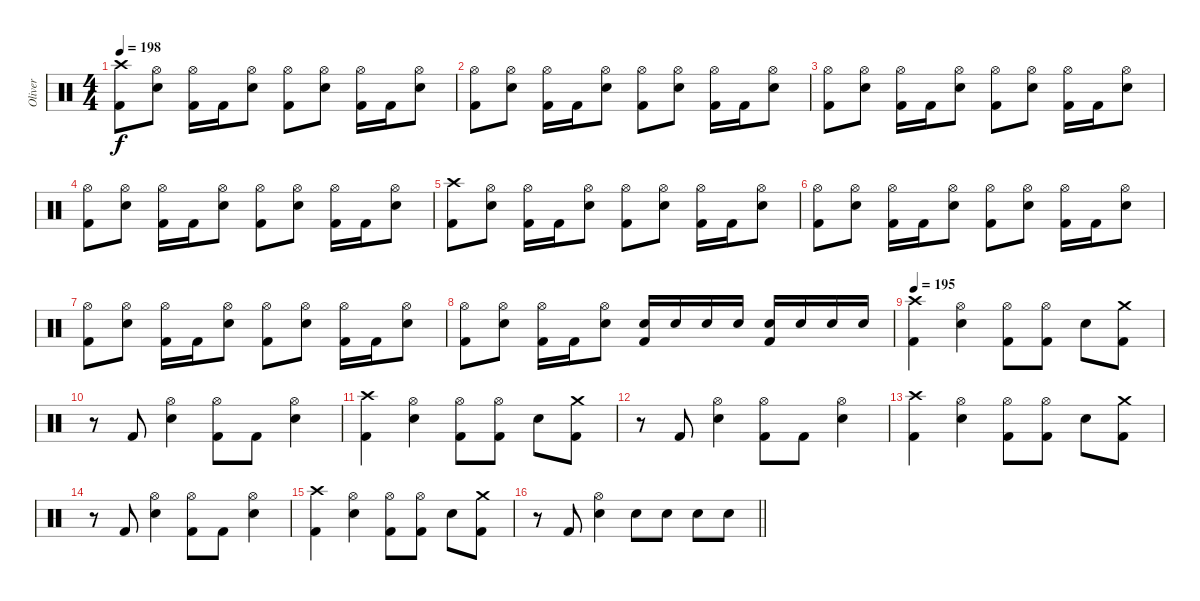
\track ("Oliver" "Oliver") {instrument percussion}
\staff {score}
\articulation defaults
\ts (4 4)
\section ("" "")
\tempo 198
\clef neutral
\ks c
("Crash high (hit)" "Kick (hit) 2").8{dy f} ("Hi-Hat (open)" "Electric Snare (hit)").8 ("Hi-Hat (open)" "Kick (hit) 2").16 "Kick (hit) 2".16 ("Hi-Hat (open)" "Electric Snare (hit)").8 ("Hi-Hat (open)" "Kick (hit) 2").8 ("Hi-Hat (open)" "Electric Snare (hit)").8 ("Hi-Hat (open)" "Kick (hit) 2").16 "Kick (hit) 2".16 ("Hi-Hat (open)" "Electric Snare (hit)").8 |
("Hi-Hat (open)" "Kick (hit) 2").8 ("Hi-Hat (open)" "Electric Snare (hit)").8 ("Hi-Hat (open)" "Kick (hit) 2").16 "Kick (hit) 2".16 ("Hi-Hat (open)" "Electric Snare (hit)").8 ("Hi-Hat (open)" "Kick (hit) 2").8 ("Hi-Hat (open)" "Electric Snare (hit)").8 ("Hi-Hat (open)" "Kick (hit) 2").16 "Kick (hit) 2".16 ("Hi-Hat (open)" "Electric Snare (hit)").8 |
("Hi-Hat (open)" "Kick (hit) 2").8 ("Hi-Hat (open)" "Electric Snare (hit)").8 ("Hi-Hat (open)" "Kick (hit) 2").16 "Kick (hit) 2".16 ("Hi-Hat (open)" "Electric Snare (hit)").8 ("Hi-Hat (open)" "Kick (hit) 2").8 ("Hi-Hat (open)" "Electric Snare (hit)").8 ("Hi-Hat (open)" "Kick (hit) 2").16 "Kick (hit) 2".16 ("Hi-Hat (open)" "Electric Snare (hit)").8 |
("Hi-Hat (open)" "Kick (hit) 2").8 ("Hi-Hat (open)" "Electric Snare (hit)").8 ("Hi-Hat (open)" "Kick (hit) 2").16 "Kick (hit) 2".16 ("Hi-Hat (open)" "Electric Snare (hit)").8 ("Hi-Hat (open)" "Kick (hit) 2").8 ("Hi-Hat (open)" "Electric Snare (hit)").8 ("Hi-Hat (open)" "Kick (hit) 2").16 "Kick (hit) 2".16 ("Hi-Hat (open)" "Electric Snare (hit)").8 |
("Crash high (hit)" "Kick (hit) 2").8 ("Hi-Hat (open)" "Electric Snare (hit)").8 ("Hi-Hat (open)" "Kick (hit) 2").16 "Kick (hit) 2".16 ("Hi-Hat (open)" "Electric Snare (hit)").8 ("Hi-Hat (open)" "Kick (hit) 2").8 ("Hi-Hat (open)" "Electric Snare (hit)").8 ("Hi-Hat (open)" "Kick (hit) 2").16 "Kick (hit) 2".16 ("Hi-Hat (open)" "Electric Snare (hit)").8 |
("Hi-Hat (open)" "Kick (hit) 2").8 ("Hi-Hat (open)" "Electric Snare (hit)").8 ("Hi-Hat (open)" "Kick (hit) 2").16 "Kick (hit) 2".16 ("Hi-Hat (open)" "Electric Snare (hit)").8 ("Hi-Hat (open)" "Kick (hit) 2").8 ("Hi-Hat (open)" "Electric Snare (hit)").8 ("Hi-Hat (open)" "Kick (hit) 2").16 "Kick (hit) 2".16 ("Hi-Hat (open)" "Electric Snare (hit)").8 |
("Hi-Hat (open)" "Kick (hit) 2").8 ("Hi-Hat (open)" "Electric Snare (hit)").8 ("Hi-Hat (open)" "Kick (hit) 2").16 "Kick (hit) 2".16 ("Hi-Hat (open)" "Electric Snare (hit)").8 ("Hi-Hat (open)" "Kick (hit) 2").8 ("Hi-Hat (open)" "Electric Snare (hit)").8 ("Hi-Hat (open)" "Kick (hit) 2").16 "Kick (hit) 2".16 ("Hi-Hat (open)" "Electric Snare (hit)").8 |
("Hi-Hat (open)" "Kick (hit) 2").8 ("Hi-Hat (open)" "Electric Snare (hit)").8 ("Hi-Hat (open)" "Kick (hit) 2").16 "Kick (hit) 2".16 ("Hi-Hat (open)" "Electric Snare (hit)").8 ("Electric Snare (hit)" "Kick (hit) 2").16 "Electric Snare (hit)".16 "Electric Snare (hit)".16 "Electric Snare (hit)".16 ("Electric Snare (hit)" "Kick (hit) 2").16 "Electric Snare (hit)".16 "Electric Snare (hit)".16 "Electric Snare (hit)".16 |
\tempo 195
("Crash high (hit)" "Kick (hit) 2").4 ("Hi-Hat (open)" "Electric Snare (hit)").4 ("Hi-Hat (open)" "Kick (hit) 2").8 ("Hi-Hat (open)" "Kick (hit) 2").8 "Electric Snare (hit)".8 ("Crash medium (hit)" "Kick (hit) 2").8 |
r.8 "Kick (hit) 2".8 ("Hi-Hat (open)" "Electric Snare (hit)").4 ("Hi-Hat (open)" "Kick (hit) 2").8 "Kick (hit) 2".8 ("Hi-Hat (open)" "Electric Snare (hit)").4 |
("Crash high (hit)" "Kick (hit) 2").4 ("Hi-Hat (open)" "Electric Snare (hit)").4 ("Hi-Hat (open)" "Kick (hit) 2").8 ("Hi-Hat (open)" "Kick (hit) 2").8 "Electric Snare (hit)".8 ("Crash medium (hit)" "Kick (hit) 2").8 |
r.8 "Kick (hit) 2".8 ("Hi-Hat (open)" "Electric Snare (hit)").4 ("Hi-Hat (open)" "Kick (hit) 2").8 "Kick (hit) 2".8 ("Hi-Hat (open)" "Electric Snare (hit)").4 |
("Crash high (hit)" "Kick (hit) 2").4 ("Hi-Hat (open)" "Electric Snare (hit)").4 ("Hi-Hat (open)" "Kick (hit) 2").8 ("Hi-Hat (open)" "Kick (hit) 2").8 "Electric Snare (hit)".8 ("Crash medium (hit)" "Kick (hit) 2").8 |
r.8 "Kick (hit) 2".8 ("Hi-Hat (open)" "Electric Snare (hit)").4 ("Hi-Hat (open)" "Kick (hit) 2").8 "Kick (hit) 2".8 ("Hi-Hat (open)" "Electric Snare (hit)").4 |
("Crash high (hit)" "Kick (hit) 2").4 ("Hi-Hat (open)" "Electric Snare (hit)").4 ("Hi-Hat (open)" "Kick (hit) 2").8 ("Hi-Hat (open)" "Kick (hit) 2").8 "Electric Snare (hit)".8 ("Crash medium (hit)" "Kick (hit) 2").8 |
\barLineRight lightlight
r.8 "Kick (hit) 2".8 ("Hi-Hat (open)" "Electric Snare (hit)").4 "Electric Snare (hit)".8 "Electric Snare (hit)".8 "Electric Snare (hit)".8 "Electric Snare (hit)".8
